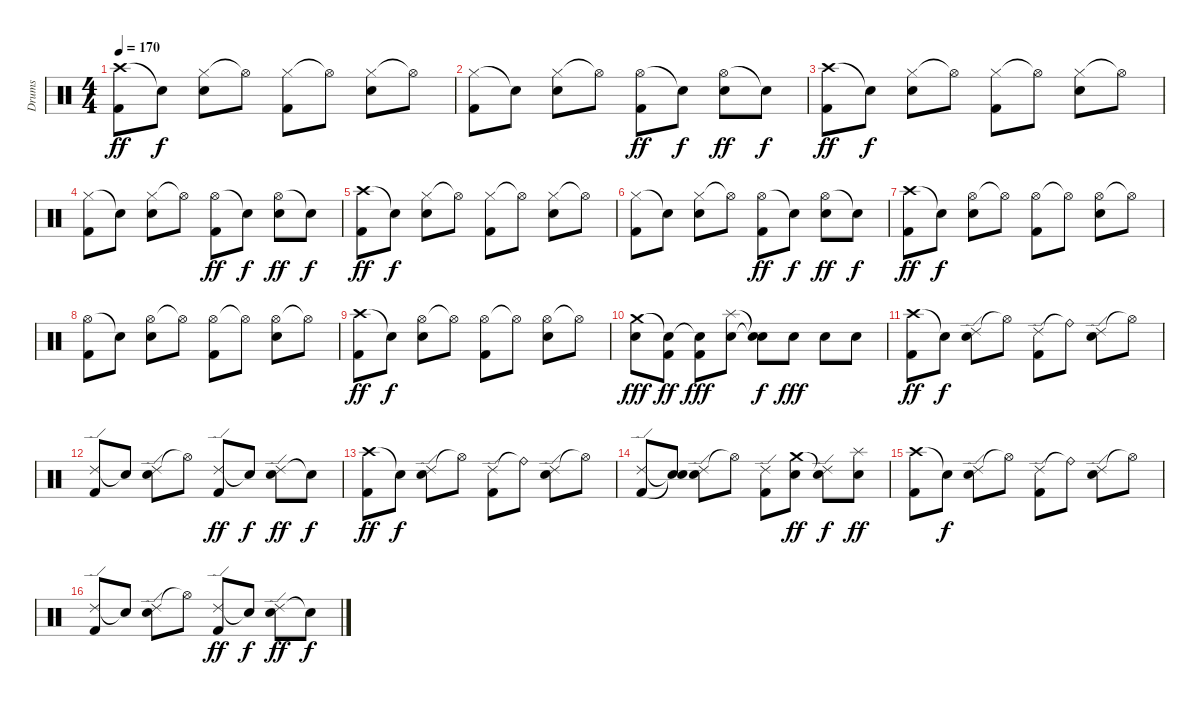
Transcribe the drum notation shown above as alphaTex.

\track ("Drums" "Drums") {instrument percussion}
\staff {score}
\articulation defaults
\ts (4 4)
\tempo 170
\clef neutral
\ks c
("Crash high (hit)" "Kick (hit) 2").8{dy ff} "Snare (hit)"{t}.8{dy f} ("Hi-Hat (closed)" "Snare (hit) 2").8 "Hi-Hat (open)"{t}.8 ("Hi-Hat (closed)" "Kick (hit) 2").8 "Hi-Hat (open)"{t}.8 ("Hi-Hat (closed)" "Snare (hit) 2").8 "Hi-Hat (open)"{t}.8 |
("Hi-Hat (closed)" "Kick (hit) 2").8 "Snare (hit)"{t}.8 ("Hi-Hat (closed)" "Snare (hit) 2").8 "Hi-Hat (open)"{t}.8 ("Hi-Hat (open)" "Kick (hit) 2").8{dy ff} "Snare (hit)"{t}.8{dy f} ("Hi-Hat (open)" "Snare (hit) 2").8{dy ff} "Snare (hit)"{t}.8{dy f} |
("Crash high (hit)" "Kick (hit) 2").8{dy ff} "Snare (hit)"{t}.8{dy f} ("Hi-Hat (closed)" "Snare (hit) 2").8 "Hi-Hat (open)"{t}.8 ("Hi-Hat (closed)" "Kick (hit) 2").8 "Hi-Hat (open)"{t}.8 ("Hi-Hat (closed)" "Snare (hit) 2").8 "Hi-Hat (open)"{t}.8 |
("Hi-Hat (closed)" "Kick (hit) 2").8 "Snare (hit)"{t}.8 ("Hi-Hat (closed)" "Snare (hit) 2").8 "Hi-Hat (open)"{t}.8 ("Hi-Hat (open)" "Kick (hit) 2").8{dy ff} "Snare (hit)"{t}.8{dy f} ("Hi-Hat (open)" "Snare (hit) 2").8{dy ff} "Snare (hit)"{t}.8{dy f} |
("Crash high (hit)" "Kick (hit) 2").8{dy ff} "Snare (hit)"{t}.8{dy f} ("Hi-Hat (closed)" "Snare (hit) 2").8 "Hi-Hat (open)"{t}.8 ("Hi-Hat (closed)" "Kick (hit) 2").8 "Hi-Hat (open)"{t}.8 ("Hi-Hat (closed)" "Snare (hit) 2").8 "Hi-Hat (open)"{t}.8 |
("Hi-Hat (closed)" "Kick (hit) 2").8 "Snare (hit)"{t}.8 ("Hi-Hat (closed)" "Snare (hit) 2").8 "Hi-Hat (open)"{t}.8 ("Hi-Hat (open)" "Kick (hit) 2").8{dy ff} "Snare (hit)"{t}.8{dy f} ("Hi-Hat (open)" "Snare (hit) 2").8{dy ff} "Snare (hit)"{t}.8{dy f} |
("Crash high (hit)" "Kick (hit) 2").8{dy ff} "Snare (hit)"{t}.8{dy f} ("Hi-Hat (open)" "Snare (hit) 2").8 "Hi-Hat (open)"{t}.8 ("Hi-Hat (open)" "Kick (hit) 2").8 "Hi-Hat (open)"{t}.8 ("Hi-Hat (open)" "Snare (hit) 2").8 "Hi-Hat (open)"{t}.8 |
("Hi-Hat (open)" "Kick (hit) 2").8 "Snare (hit)"{t}.8 ("Hi-Hat (open)" "Snare (hit) 2").8 "Hi-Hat (open)"{t}.8 ("Hi-Hat (open)" "Kick (hit) 2").8 "Hi-Hat (open)"{t}.8 ("Hi-Hat (open)" "Snare (hit) 2").8 "Hi-Hat (open)"{t}.8 |
("Crash high (hit)" "Kick (hit) 2").8{dy ff} "Snare (hit)"{t}.8{dy f} ("Hi-Hat (open)" "Snare (hit) 2").8 "Hi-Hat (open)"{t}.8 ("Hi-Hat (open)" "Kick (hit) 2").8 "Hi-Hat (open)"{t}.8 ("Hi-Hat (open)" "Snare (hit) 2").8 "Hi-Hat (open)"{t}.8 |
("Crash medium (hit)" "Snare (hit) 2").8{dy fff} ("Snare (hit)"{t} "Kick (hit) 2").8{dy ff} ("Snare (hit)"{t} "Kick (hit) 2").8{dy fff} ("Splash (hit)" "Snare (hit) 2").8 ("Snare (hit)"{t} "Snare (hit)"{t}).8{dy f} "Snare (hit) 2".8{dy fff} "Snare (hit) 2".8 "Snare (hit) 2".8 |
("Crash high (hit)" "Kick (hit) 2").8{dy ff} "Snare (hit)"{t}.8{dy f} ("Ride (edge) 2" "Snare (hit) 2").8 "Hi-Hat (open)"{t}.8 ("Ride (edge) 2" "Kick (hit) 2").8 "Ride (bell)"{t}.8 ("Ride (edge) 2" "Snare (hit) 2").8 "Hi-Hat (open)"{t}.8 |
("Ride (edge) 2" "Kick (hit) 2").8 "Snare (hit)"{t}.8 ("Ride (edge) 2" "Snare (hit) 2").8 "Hi-Hat (open)"{t}.8 ("Ride (edge) 2" "Kick (hit) 2").8{dy ff} "Snare (hit)"{t}.8{dy f} ("Ride (edge) 2" "Snare (hit) 2").8{dy ff} "Snare (hit)"{t}.8{dy f} |
("Crash high (hit)" "Kick (hit) 2").8{dy ff} "Snare (hit)"{t}.8{dy f} ("Ride (edge) 2" "Snare (hit) 2").8 "Hi-Hat (open)"{t}.8 ("Ride (edge) 2" "Kick (hit) 2").8 "Ride (bell)"{t}.8 ("Ride (edge) 2" "Snare (hit) 2").8 "Hi-Hat (open)"{t}.8 |
("Ride (edge) 2" "Kick (hit) 2").8 ("Snare (hit)"{t} "Snare (hit)"{t}).8 ("Ride (edge) 2" "Snare (hit) 2").8 "Hi-Hat (open)"{t}.8 ("Ride (edge) 2" "Kick (hit) 2").8 ("Crash medium (hit)" "Snare (hit) 2").8{dy ff} ("Snare (hit)"{t} "Ride (edge) 2").8{dy f} ("Splash (hit)" "Snare (hit) 2").8{dy ff} |
("Crash high (hit)" "Kick (hit) 2").8 "Snare (hit)"{t}.8{dy f} ("Ride (edge) 2" "Snare (hit) 2").8 "Hi-Hat (open)"{t}.8 ("Ride (edge) 2" "Kick (hit) 2").8 "Ride (bell)"{t}.8 ("Ride (edge) 2" "Snare (hit) 2").8 "Hi-Hat (open)"{t}.8 |
("Ride (edge) 2" "Kick (hit) 2").8 "Snare (hit)"{t}.8 ("Ride (edge) 2" "Snare (hit) 2").8 "Hi-Hat (open)"{t}.8 ("Ride (edge) 2" "Kick (hit) 2").8{dy ff} "Snare (hit)"{t}.8{dy f} ("Ride (edge) 2" "Snare (hit) 2").8{dy ff} "Snare (hit)"{t}.8{dy f}
